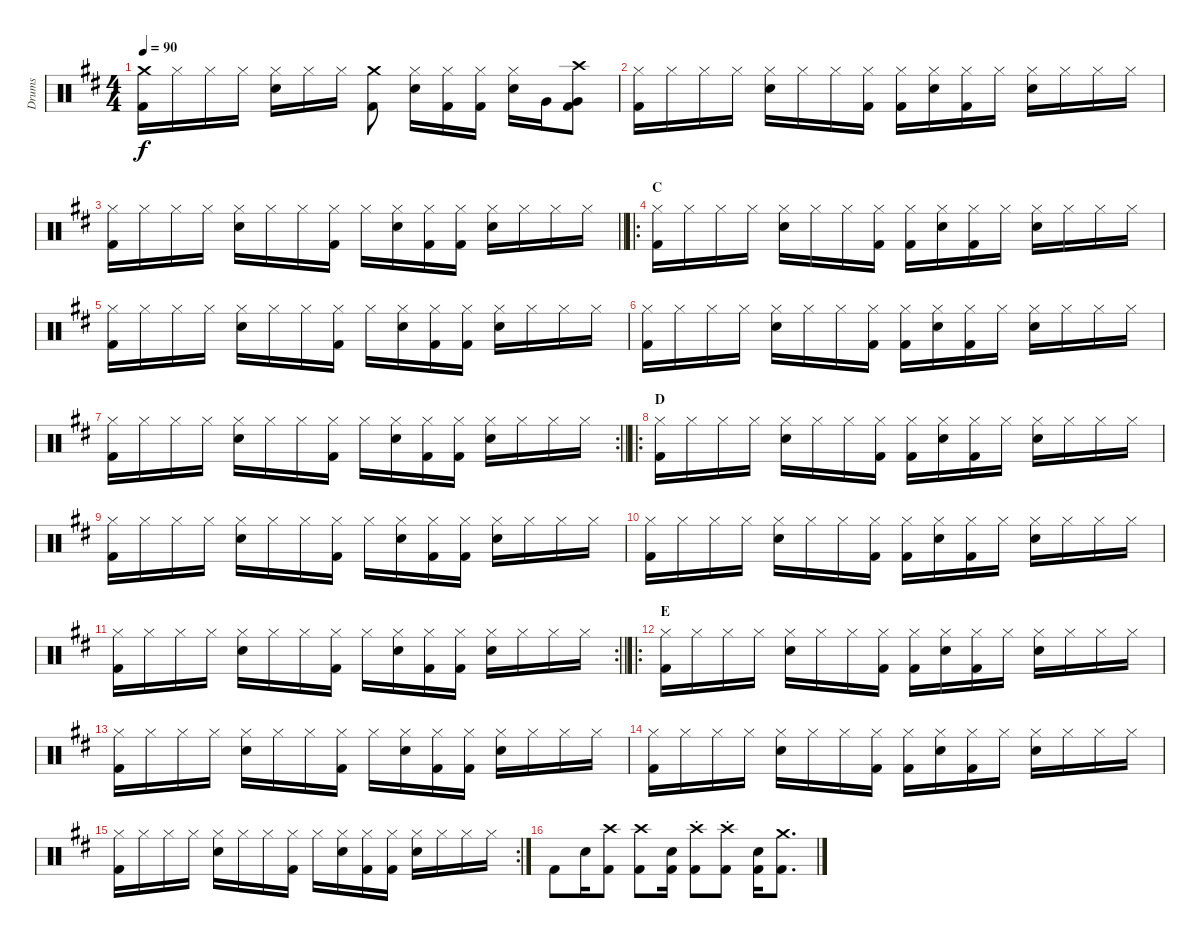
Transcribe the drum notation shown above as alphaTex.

\track ("Drums" "Drums") {instrument percussion}
\staff {score}
\articulation defaults
\ts (4 4)
\tempo 90
\clef neutral
\ks d
("Crash medium (hit)" "Kick (hit) 2").16{dy f} "Hi-Hat (closed)".16 "Hi-Hat (closed)".16 "Hi-Hat (closed)".16 ("Hi-Hat (closed)" "Snare (hit) 2").16 "Hi-Hat (closed)".16 "Hi-Hat (closed)".16{beam split} ("Crash medium (hit)" "Kick (hit) 2").8 ("Hi-Hat (closed)" "Snare (hit) 2").16 ("Hi-Hat (closed)" "Kick (hit) 2").16 ("Hi-Hat (closed)" "Kick (hit) 2").16 ("Hi-Hat (closed)" "Snare (hit) 2").16 "Very Low Tom (hit)".16 ("Crash high (hit)" "Kick (hit) 2" "Very Low Tom (hit)").8 |
("Hi-Hat (closed)" "Kick (hit) 2").16 "Hi-Hat (closed)".16 "Hi-Hat (closed)".16 "Hi-Hat (closed)".16 ("Hi-Hat (closed)" "Snare (hit) 2").16 "Hi-Hat (closed)".16 "Hi-Hat (closed)".16 ("Hi-Hat (closed)" "Kick (hit) 2").16 ("Hi-Hat (closed)" "Kick (hit) 2").16 ("Hi-Hat (closed)" "Snare (hit) 2").16 ("Hi-Hat (closed)" "Kick (hit) 2").16 "Hi-Hat (closed)".16 ("Hi-Hat (closed)" "Snare (hit) 2").16 "Hi-Hat (closed)".16 "Hi-Hat (closed)".16 "Hi-Hat (closed)".16 |
\barLineRight lightlight
("Hi-Hat (closed)" "Kick (hit) 2").16 "Hi-Hat (closed)".16 "Hi-Hat (closed)".16 "Hi-Hat (closed)".16 ("Hi-Hat (closed)" "Snare (hit) 2").16 "Hi-Hat (closed)".16 "Hi-Hat (closed)".16 ("Hi-Hat (closed)" "Kick (hit) 2").16 "Hi-Hat (closed)".16 ("Hi-Hat (closed)" "Snare (hit) 2").16 ("Hi-Hat (closed)" "Kick (hit) 2").16 ("Hi-Hat (closed)" "Kick (hit) 2").16 ("Hi-Hat (closed)" "Snare (hit) 2").16 "Hi-Hat (closed)".16 "Hi-Hat (closed)".16 "Hi-Hat (closed)".16 |
\ro
\section ("" "C")
("Hi-Hat (closed)" "Kick (hit) 2").16 "Hi-Hat (closed)".16 "Hi-Hat (closed)".16 "Hi-Hat (closed)".16 ("Hi-Hat (closed)" "Snare (hit) 2").16 "Hi-Hat (closed)".16 "Hi-Hat (closed)".16 ("Hi-Hat (closed)" "Kick (hit) 2").16 ("Hi-Hat (closed)" "Kick (hit) 2").16 ("Hi-Hat (closed)" "Snare (hit) 2").16 ("Hi-Hat (closed)" "Kick (hit) 2").16 "Hi-Hat (closed)".16 ("Hi-Hat (closed)" "Snare (hit) 2").16 "Hi-Hat (closed)".16 "Hi-Hat (closed)".16 "Hi-Hat (closed)".16 |
("Hi-Hat (closed)" "Kick (hit) 2").16 "Hi-Hat (closed)".16 "Hi-Hat (closed)".16 "Hi-Hat (closed)".16 ("Hi-Hat (closed)" "Snare (hit) 2").16 "Hi-Hat (closed)".16 "Hi-Hat (closed)".16 ("Hi-Hat (closed)" "Kick (hit) 2").16 "Hi-Hat (closed)".16 ("Hi-Hat (closed)" "Snare (hit) 2").16 ("Hi-Hat (closed)" "Kick (hit) 2").16 ("Hi-Hat (closed)" "Kick (hit) 2").16 ("Hi-Hat (closed)" "Snare (hit) 2").16 "Hi-Hat (closed)".16 "Hi-Hat (closed)".16 "Hi-Hat (closed)".16 |
("Hi-Hat (closed)" "Kick (hit) 2").16 "Hi-Hat (closed)".16 "Hi-Hat (closed)".16 "Hi-Hat (closed)".16 ("Hi-Hat (closed)" "Snare (hit) 2").16 "Hi-Hat (closed)".16 "Hi-Hat (closed)".16 ("Hi-Hat (closed)" "Kick (hit) 2").16 ("Hi-Hat (closed)" "Kick (hit) 2").16 ("Hi-Hat (closed)" "Snare (hit) 2").16 ("Hi-Hat (closed)" "Kick (hit) 2").16 "Hi-Hat (closed)".16 ("Hi-Hat (closed)" "Snare (hit) 2").16 "Hi-Hat (closed)".16 "Hi-Hat (closed)".16 "Hi-Hat (closed)".16 |
\rc 2
\barLineRight lightlight
("Hi-Hat (closed)" "Kick (hit) 2").16 "Hi-Hat (closed)".16 "Hi-Hat (closed)".16 "Hi-Hat (closed)".16 ("Hi-Hat (closed)" "Snare (hit) 2").16 "Hi-Hat (closed)".16 "Hi-Hat (closed)".16 ("Hi-Hat (closed)" "Kick (hit) 2").16 "Hi-Hat (closed)".16 ("Hi-Hat (closed)" "Snare (hit) 2").16 ("Hi-Hat (closed)" "Kick (hit) 2").16 ("Hi-Hat (closed)" "Kick (hit) 2").16 ("Hi-Hat (closed)" "Snare (hit) 2").16 "Hi-Hat (closed)".16 "Hi-Hat (closed)".16 "Hi-Hat (closed)".16 |
\ro
\section ("" "D")
("Hi-Hat (closed)" "Kick (hit) 2").16 "Hi-Hat (closed)".16 "Hi-Hat (closed)".16 "Hi-Hat (closed)".16 ("Hi-Hat (closed)" "Snare (hit) 2").16 "Hi-Hat (closed)".16 "Hi-Hat (closed)".16 ("Hi-Hat (closed)" "Kick (hit) 2").16 ("Hi-Hat (closed)" "Kick (hit) 2").16 ("Hi-Hat (closed)" "Snare (hit) 2").16 ("Hi-Hat (closed)" "Kick (hit) 2").16 "Hi-Hat (closed)".16 ("Hi-Hat (closed)" "Snare (hit) 2").16 "Hi-Hat (closed)".16 "Hi-Hat (closed)".16 "Hi-Hat (closed)".16 |
("Hi-Hat (closed)" "Kick (hit) 2").16 "Hi-Hat (closed)".16 "Hi-Hat (closed)".16 "Hi-Hat (closed)".16 ("Hi-Hat (closed)" "Snare (hit) 2").16 "Hi-Hat (closed)".16 "Hi-Hat (closed)".16 ("Hi-Hat (closed)" "Kick (hit) 2").16 "Hi-Hat (closed)".16 ("Hi-Hat (closed)" "Snare (hit) 2").16 ("Hi-Hat (closed)" "Kick (hit) 2").16 ("Hi-Hat (closed)" "Kick (hit) 2").16 ("Hi-Hat (closed)" "Snare (hit) 2").16 "Hi-Hat (closed)".16 "Hi-Hat (closed)".16 "Hi-Hat (closed)".16 |
("Hi-Hat (closed)" "Kick (hit) 2").16 "Hi-Hat (closed)".16 "Hi-Hat (closed)".16 "Hi-Hat (closed)".16 ("Hi-Hat (closed)" "Snare (hit) 2").16 "Hi-Hat (closed)".16 "Hi-Hat (closed)".16 ("Hi-Hat (closed)" "Kick (hit) 2").16 ("Hi-Hat (closed)" "Kick (hit) 2").16 ("Hi-Hat (closed)" "Snare (hit) 2").16 ("Hi-Hat (closed)" "Kick (hit) 2").16 "Hi-Hat (closed)".16 ("Hi-Hat (closed)" "Snare (hit) 2").16 "Hi-Hat (closed)".16 "Hi-Hat (closed)".16 "Hi-Hat (closed)".16 |
\rc 2
\barLineRight lightlight
("Hi-Hat (closed)" "Kick (hit) 2").16 "Hi-Hat (closed)".16 "Hi-Hat (closed)".16 "Hi-Hat (closed)".16 ("Hi-Hat (closed)" "Snare (hit) 2").16 "Hi-Hat (closed)".16 "Hi-Hat (closed)".16 ("Hi-Hat (closed)" "Kick (hit) 2").16 "Hi-Hat (closed)".16 ("Hi-Hat (closed)" "Snare (hit) 2").16 ("Hi-Hat (closed)" "Kick (hit) 2").16 ("Hi-Hat (closed)" "Kick (hit) 2").16 ("Hi-Hat (closed)" "Snare (hit) 2").16 "Hi-Hat (closed)".16 "Hi-Hat (closed)".16 "Hi-Hat (closed)".16 |
\ro
\section ("" "E")
("Hi-Hat (closed)" "Kick (hit) 2").16 "Hi-Hat (closed)".16 "Hi-Hat (closed)".16 "Hi-Hat (closed)".16 ("Hi-Hat (closed)" "Snare (hit) 2").16 "Hi-Hat (closed)".16 "Hi-Hat (closed)".16 ("Hi-Hat (closed)" "Kick (hit) 2").16 ("Hi-Hat (closed)" "Kick (hit) 2").16 ("Hi-Hat (closed)" "Snare (hit) 2").16 ("Hi-Hat (closed)" "Kick (hit) 2").16 "Hi-Hat (closed)".16 ("Hi-Hat (closed)" "Snare (hit) 2").16 "Hi-Hat (closed)".16 "Hi-Hat (closed)".16 "Hi-Hat (closed)".16 |
("Hi-Hat (closed)" "Kick (hit) 2").16 "Hi-Hat (closed)".16 "Hi-Hat (closed)".16 "Hi-Hat (closed)".16 ("Hi-Hat (closed)" "Snare (hit) 2").16 "Hi-Hat (closed)".16 "Hi-Hat (closed)".16 ("Hi-Hat (closed)" "Kick (hit) 2").16 "Hi-Hat (closed)".16 ("Hi-Hat (closed)" "Snare (hit) 2").16 ("Hi-Hat (closed)" "Kick (hit) 2").16 ("Hi-Hat (closed)" "Kick (hit) 2").16 ("Hi-Hat (closed)" "Snare (hit) 2").16 "Hi-Hat (closed)".16 "Hi-Hat (closed)".16 "Hi-Hat (closed)".16 |
("Hi-Hat (closed)" "Kick (hit) 2").16 "Hi-Hat (closed)".16 "Hi-Hat (closed)".16 "Hi-Hat (closed)".16 ("Hi-Hat (closed)" "Snare (hit) 2").16 "Hi-Hat (closed)".16 "Hi-Hat (closed)".16 ("Hi-Hat (closed)" "Kick (hit) 2").16 ("Hi-Hat (closed)" "Kick (hit) 2").16 ("Hi-Hat (closed)" "Snare (hit) 2").16 ("Hi-Hat (closed)" "Kick (hit) 2").16 "Hi-Hat (closed)".16 ("Hi-Hat (closed)" "Snare (hit) 2").16 "Hi-Hat (closed)".16 "Hi-Hat (closed)".16 "Hi-Hat (closed)".16 |
\rc 2
("Hi-Hat (closed)" "Kick (hit) 2").16 "Hi-Hat (closed)".16 "Hi-Hat (closed)".16 "Hi-Hat (closed)".16 ("Hi-Hat (closed)" "Snare (hit) 2").16 "Hi-Hat (closed)".16 "Hi-Hat (closed)".16 ("Hi-Hat (closed)" "Kick (hit) 2").16 "Hi-Hat (closed)".16 ("Hi-Hat (closed)" "Snare (hit) 2").16 ("Hi-Hat (closed)" "Kick (hit) 2").16 ("Hi-Hat (closed)" "Kick (hit) 2").16 ("Hi-Hat (closed)" "Snare (hit) 2").16 "Hi-Hat (closed)".16 "Hi-Hat (closed)".16 "Hi-Hat (closed)".16 |
"Kick (hit) 2".8 "Snare (hit) 2".16 ("Kick (hit) 2" "Crash high (hit)").8 ("Crash high (hit)" "Kick (hit) 2").8 ("Snare (hit) 2" "Kick (hit) 2").16 ("Crash high (hit)"{st} "Kick (hit) 2"{st}).8 ("Crash high (hit)"{st} "Kick (hit) 2"{st}).8 ("Snare (hit) 2" "Kick (hit) 2").16 ("Crash medium (hit)" "Kick (hit) 2").8{d}
